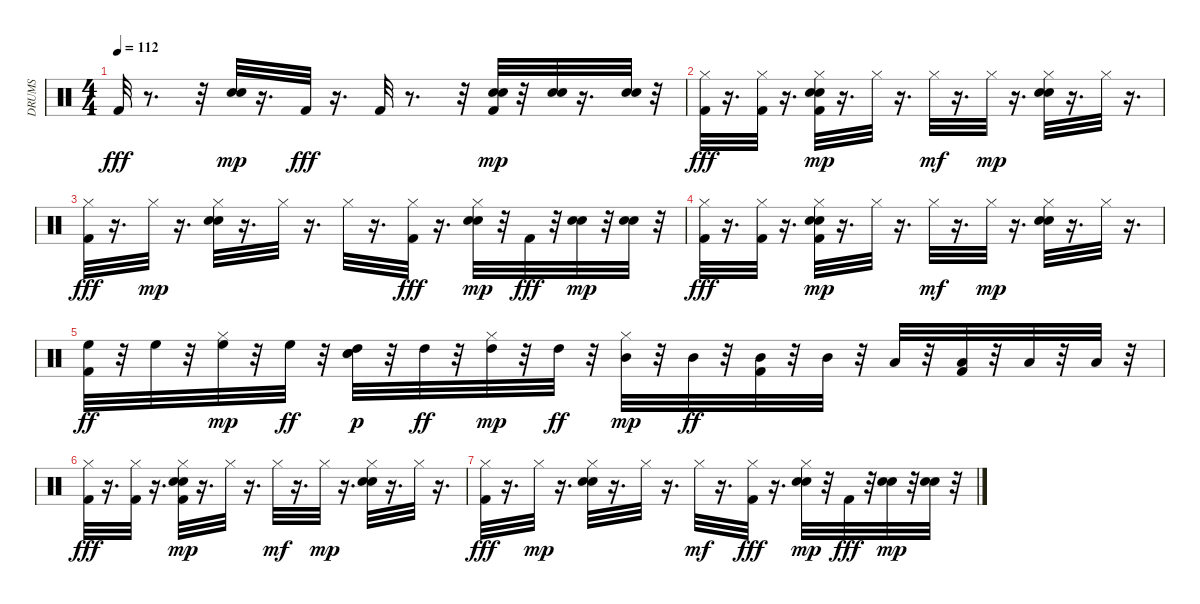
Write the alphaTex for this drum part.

\track ("DRUMS" "DRUMS") {instrument percussion}
\staff {score}
\articulation defaults
\ts (4 4)
\tempo 112
\clef neutral
\ks c "Kick (hit) 2".32{dy fff}
r.8{d} r.32 ("Hand Clap (hit)" "Electric Snare (hit)").32{dy mp} r.16{d} "Kick (hit) 2".32{dy fff} r.16{d} "Kick (hit) 2".32 r.8{d} r.32 ("Hand Clap (hit)" "Kick (hit) 2" "Electric Snare (hit)").32{dy mp} r.32 ("Hand Clap (hit)" "Electric Snare (hit)").32 r.16{d} ("Hand Clap (hit)" "Electric Snare (hit)").32 r.32 |
("Hi-Hat (closed)" "Kick (hit) 2").32{dy fff} r.16{d} ("Hi-Hat (closed)" "Kick (hit) 2").32 r.16{d} ("Hand Clap (hit)" "Hi-Hat (closed)" "Kick (hit) 2" "Electric Snare (hit)").32{dy mp} r.16{d} "Hi-Hat (closed)".32 r.16{d} "Hi-Hat (closed)".32{dy mf} r.16{d} "Hi-Hat (closed)".32{dy mp} r.16{d} ("Hand Clap (hit)" "Hi-Hat (closed)" "Electric Snare (hit)").32 r.16{d} "Hi-Hat (closed)".32 r.16{d} |
("Hi-Hat (closed)" "Kick (hit) 2").32{dy fff} r.16{d} "Hi-Hat (closed)".32{dy mp} r.16{d} ("Hand Clap (hit)" "Hi-Hat (closed)" "Electric Snare (hit)").32 r.16{d} "Hi-Hat (closed)".32 r.16{d} "Hi-Hat (closed)".32 r.16{d} ("Hi-Hat (closed)" "Kick (hit) 2").32{dy fff} r.16{d} ("Hand Clap (hit)" "Hi-Hat (closed)" "Electric Snare (hit)").32{dy mp} r.32 "Kick (hit) 2".32{dy fff} r.32 ("Hand Clap (hit)" "Electric Snare (hit)").32{dy mp} r.32 ("Hand Clap (hit)" "Electric Snare (hit)").32 r.32 |
("Hi-Hat (closed)" "Kick (hit) 2").32{dy fff} r.16{d} ("Hi-Hat (closed)" "Kick (hit) 2").32 r.16{d} ("Hand Clap (hit)" "Hi-Hat (closed)" "Kick (hit) 2" "Electric Snare (hit)").32{dy mp} r.16{d} "Hi-Hat (closed)".32 r.16{d} "Hi-Hat (closed)".32{dy mf} r.16{d} "Hi-Hat (closed)".32{dy mp} r.16{d} ("Hand Clap (hit)" "Hi-Hat (closed)" "Electric Snare (hit)").32 r.16{d} "Hi-Hat (closed)".32 r.16{d} |
("Kick (hit) 2" "High Floor Tom (hit)").32{dy ff} r.32 "High Floor Tom (hit)".32 r.32 ("High Floor Tom (hit)" "Hi-Hat (closed)").32{dy mp} r.32 "High Floor Tom (hit)".32{dy ff} r.32 ("High Tom (hit)" "Hand Clap (hit)" "Electric Snare (hit)").32{dy p} r.32 "High Tom (hit)".32{dy ff} r.32 ("High Tom (hit)" "Hi-Hat (closed)").32{dy mp} r.32 "High Tom (hit)".32{dy ff} r.32 ("Mid Tom (hit)" "Hi-Hat (closed)").32{dy mp} r.32 "Mid Tom (hit)".32{dy ff} r.32 ("Kick (hit) 2" "Mid Tom (hit)").32 r.32 "Mid Tom (hit)".32 r.32 "Low Tom (hit)".32 r.32 ("Kick (hit) 2" "Low Tom (hit)").32 r.32 "Low Tom (hit)".32 r.32 "Low Tom (hit)".32 r.32 |
("Hi-Hat (closed)" "Kick (hit) 2").32{dy fff} r.16{d} ("Hi-Hat (closed)" "Kick (hit) 2").32 r.16{d} ("Hand Clap (hit)" "Hi-Hat (closed)" "Kick (hit) 2" "Electric Snare (hit)").32{dy mp volume 16} r.16{d} "Hi-Hat (closed)".32{volume 15} r.16{d} "Hi-Hat (closed)".32{dy mf volume 14} r.16{d} "Hi-Hat (closed)".32{dy mp volume 12} r.16{d} ("Hand Clap (hit)" "Hi-Hat (closed)" "Electric Snare (hit)").32{volume 11} r.16{d} "Hi-Hat (closed)".32{volume 10} r.16{d} |
("Hi-Hat (closed)" "Kick (hit) 2").32{dy fff volume 9} r.16{d} "Hi-Hat (closed)".32{dy mp volume 8} r.16{d} ("Hand Clap (hit)" "Hi-Hat (closed)" "Electric Snare (hit)").32{volume 7} r.16{d} "Hi-Hat (closed)".32{volume 6} r.16{d} "Hi-Hat (closed)".32{dy mf volume 4} r.16{d} ("Hi-Hat (closed)" "Kick (hit) 2").32{dy fff volume 3} r.16{d} ("Hand Clap (hit)" "Hi-Hat (closed)" "Electric Snare (hit)").32{dy mp volume 2} r.32 "Kick (hit) 2".32{dy fff volume 2} r.32 ("Hand Clap (hit)" "Electric Snare (hit)").32{dy mp volume 1} r.32 ("Hand Clap (hit)" "Electric Snare (hit)").32{volume 1} r.32
